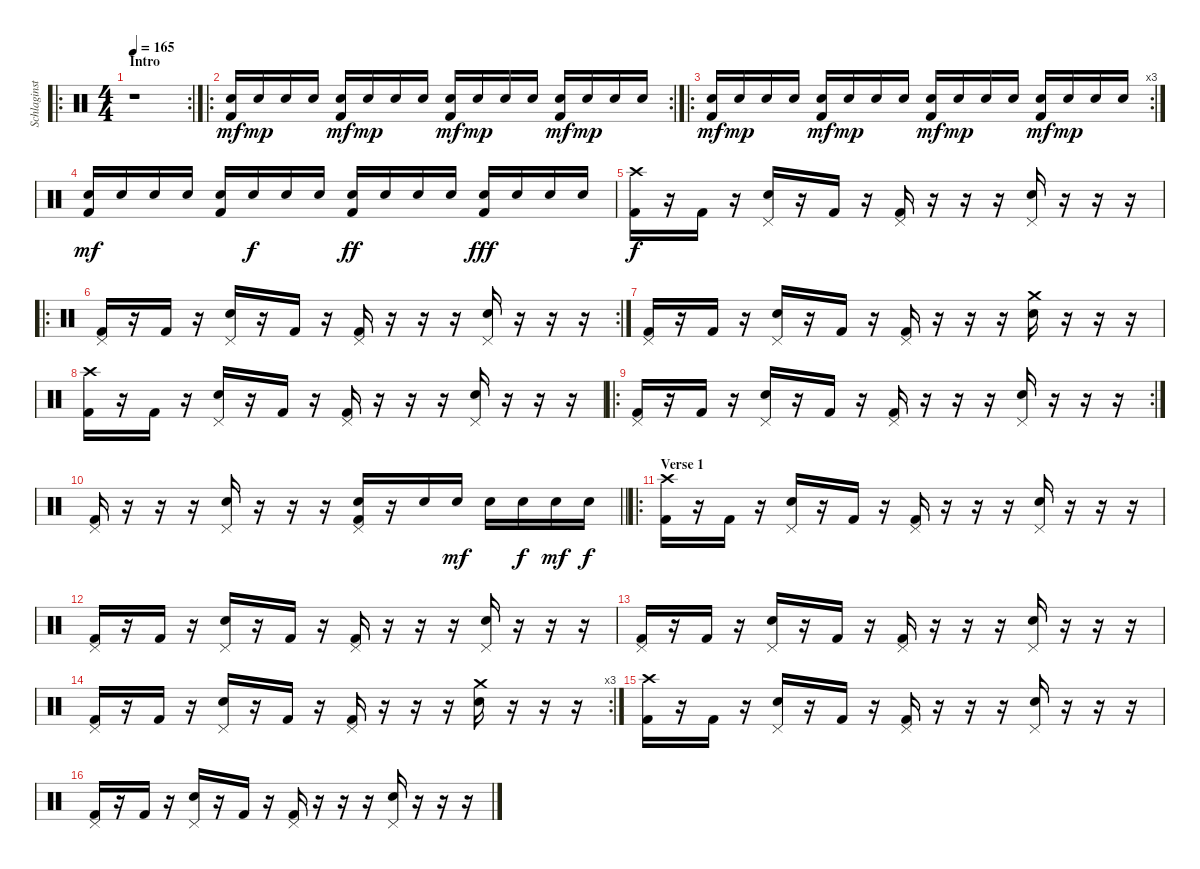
\track ("Schlaginstrumente - Auswahl" "Schlaginst") {instrument percussion}
\staff {score}
\articulation defaults
\ro
\rc 2
\ts (4 4)
\section ("" "Intro")
\tempo 165
\clef neutral
\ks c
r.1{dy mf} |
\ro
\rc 2
("Electric Snare (hit)" "Kick (hit) 2").16 "Electric Snare (hit)".16{dy mp} "Electric Snare (hit)".16 "Electric Snare (hit)".16 ("Electric Snare (hit)" "Kick (hit) 2").16{dy mf} "Electric Snare (hit)".16{dy mp} "Electric Snare (hit)".16 "Electric Snare (hit)".16 ("Electric Snare (hit)" "Kick (hit) 2").16{dy mf} "Electric Snare (hit)".16{dy mp} "Electric Snare (hit)".16 "Electric Snare (hit)".16 ("Electric Snare (hit)" "Kick (hit) 2").16{dy mf} "Electric Snare (hit)".16{dy mp} "Electric Snare (hit)".16 "Electric Snare (hit)".16 |
\ro
\rc 3
("Electric Snare (hit)" "Kick (hit) 2").16{dy mf} "Electric Snare (hit)".16{dy mp} "Electric Snare (hit)".16 "Electric Snare (hit)".16 ("Electric Snare (hit)" "Kick (hit) 2").16{dy mf} "Electric Snare (hit)".16{dy mp} "Electric Snare (hit)".16 "Electric Snare (hit)".16 ("Electric Snare (hit)" "Kick (hit) 2").16{dy mf} "Electric Snare (hit)".16{dy mp} "Electric Snare (hit)".16 "Electric Snare (hit)".16 ("Electric Snare (hit)" "Kick (hit) 2").16{dy mf} "Electric Snare (hit)".16{dy mp} "Electric Snare (hit)".16 "Electric Snare (hit)".16 |
("Electric Snare (hit)" "Kick (hit) 2").16{dy mf} "Electric Snare (hit)".16 "Electric Snare (hit)".16 "Electric Snare (hit)".16 ("Electric Snare (hit)" "Kick (hit) 2").16 "Electric Snare (hit)".16{dy f} "Electric Snare (hit)".16 "Electric Snare (hit)".16 ("Electric Snare (hit)" "Kick (hit) 2").16{dy ff} "Electric Snare (hit)".16 "Electric Snare (hit)".16 "Electric Snare (hit)".16 ("Electric Snare (hit)" "Kick (hit) 2").16{dy fff} "Electric Snare (hit)".16 "Electric Snare (hit)".16 "Electric Snare (hit)".16 |
("Crash high (hit)" "Kick (hit) 2").16{dy f} r.16 "Kick (hit) 2".16 r.16 ("Pedal Hi-Hat (hit)" "Electric Snare (hit)").16 r.16 "Kick (hit) 2".16 r.16 ("Pedal Hi-Hat (hit)" "Kick (hit) 2").16 r.16 r.16 r.16 ("Pedal Hi-Hat (hit)" "Electric Snare (hit)").16 r.16 r.16 r.16 |
\ro
\rc 2
("Pedal Hi-Hat (hit)" "Kick (hit) 2").16 r.16 "Kick (hit) 2".16 r.16 ("Pedal Hi-Hat (hit)" "Electric Snare (hit)").16 r.16 "Kick (hit) 2".16 r.16 ("Pedal Hi-Hat (hit)" "Kick (hit) 2").16 r.16 r.16 r.16 ("Pedal Hi-Hat (hit)" "Electric Snare (hit)").16 r.16 r.16 r.16 |
("Pedal Hi-Hat (hit)" "Kick (hit) 2").16 r.16 "Kick (hit) 2".16 r.16 ("Pedal Hi-Hat (hit)" "Electric Snare (hit)").16 r.16 "Kick (hit) 2".16 r.16 ("Pedal Hi-Hat (hit)" "Kick (hit) 2").16 r.16 r.16 r.16 ("Crash medium (hit)" "Electric Snare (hit)").16 r.16 r.16 r.16 |
("Crash high (hit)" "Kick (hit) 2").16 r.16 "Kick (hit) 2".16 r.16 ("Pedal Hi-Hat (hit)" "Electric Snare (hit)").16 r.16 "Kick (hit) 2".16 r.16 ("Pedal Hi-Hat (hit)" "Kick (hit) 2").16 r.16 r.16 r.16 ("Pedal Hi-Hat (hit)" "Electric Snare (hit)").16 r.16 r.16 r.16 |
\ro
\rc 2
("Pedal Hi-Hat (hit)" "Kick (hit) 2").16 r.16 "Kick (hit) 2".16 r.16 ("Pedal Hi-Hat (hit)" "Electric Snare (hit)").16 r.16 "Kick (hit) 2".16 r.16 ("Pedal Hi-Hat (hit)" "Kick (hit) 2").16 r.16 r.16 r.16 ("Pedal Hi-Hat (hit)" "Electric Snare (hit)").16 r.16 r.16 r.16 |
\barLineRight lightlight
("Pedal Hi-Hat (hit)" "Kick (hit) 2").16 r.16 r.16 r.16 ("Pedal Hi-Hat (hit)" "Electric Snare (hit)").16 r.16 r.16 r.16 ("Pedal Hi-Hat (hit)" "Electric Snare (hit)" "Kick (hit) 2").16 r.16 "Electric Snare (hit)".16 "Electric Snare (hit)".16{dy mf} "Electric Snare (hit)".16 "Electric Snare (hit)".16{dy f} "Electric Snare (hit)".16{dy mf} "Electric Snare (hit)".16{dy f} |
\ro
\section ("" "Verse 1")
("Crash high (hit)" "Kick (hit) 2").16 r.16 "Kick (hit) 2".16 r.16 ("Pedal Hi-Hat (hit)" "Electric Snare (hit)").16 r.16 "Kick (hit) 2".16 r.16 ("Pedal Hi-Hat (hit)" "Kick (hit) 2").16 r.16 r.16 r.16 ("Pedal Hi-Hat (hit)" "Electric Snare (hit)").16 r.16 r.16 r.16 |
("Pedal Hi-Hat (hit)" "Kick (hit) 2").16 r.16 "Kick (hit) 2".16 r.16 ("Pedal Hi-Hat (hit)" "Electric Snare (hit)").16 r.16 "Kick (hit) 2".16 r.16 ("Pedal Hi-Hat (hit)" "Kick (hit) 2").16 r.16 r.16 r.16 ("Pedal Hi-Hat (hit)" "Electric Snare (hit)").16 r.16 r.16 r.16 |
("Pedal Hi-Hat (hit)" "Kick (hit) 2").16 r.16 "Kick (hit) 2".16 r.16 ("Pedal Hi-Hat (hit)" "Electric Snare (hit)").16 r.16 "Kick (hit) 2".16 r.16 ("Pedal Hi-Hat (hit)" "Kick (hit) 2").16 r.16 r.16 r.16 ("Pedal Hi-Hat (hit)" "Electric Snare (hit)").16 r.16 r.16 r.16 |
\rc 3
("Pedal Hi-Hat (hit)" "Kick (hit) 2").16 r.16 "Kick (hit) 2".16 r.16 ("Pedal Hi-Hat (hit)" "Electric Snare (hit)").16 r.16 "Kick (hit) 2".16 r.16 ("Pedal Hi-Hat (hit)" "Kick (hit) 2").16 r.16 r.16 r.16 ("Crash medium (hit)" "Electric Snare (hit)").16 r.16 r.16 r.16 |
("Crash high (hit)" "Kick (hit) 2").16 r.16 "Kick (hit) 2".16 r.16 ("Pedal Hi-Hat (hit)" "Electric Snare (hit)").16 r.16 "Kick (hit) 2".16 r.16 ("Pedal Hi-Hat (hit)" "Kick (hit) 2").16 r.16 r.16 r.16 ("Pedal Hi-Hat (hit)" "Electric Snare (hit)").16 r.16 r.16 r.16 |
("Pedal Hi-Hat (hit)" "Kick (hit) 2").16 r.16 "Kick (hit) 2".16 r.16 ("Pedal Hi-Hat (hit)" "Electric Snare (hit)").16 r.16 "Kick (hit) 2".16 r.16 ("Pedal Hi-Hat (hit)" "Kick (hit) 2").16 r.16 r.16 r.16 ("Pedal Hi-Hat (hit)" "Electric Snare (hit)").16 r.16 r.16 r.16
